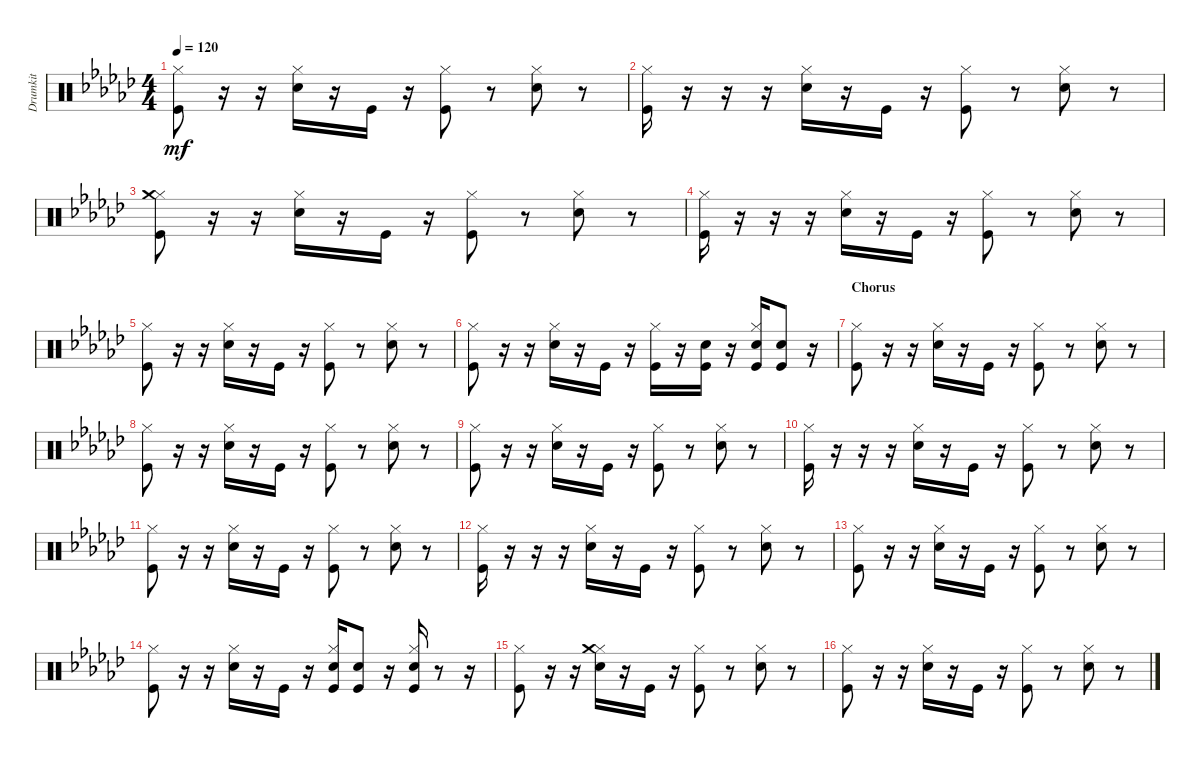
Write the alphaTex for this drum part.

\track ("Drumkit" "Drumkit") {instrument percussion}
\staff {score}
\articulation defaults
\ts (4 4)
\tempo 120
\clef neutral
\ks ebminor
("Kick (hit)" "Hi-Hat (closed)").8{dy mf} r.16 r.16 ("Snare (hit) 2" "Hi-Hat (closed)").16 r.16 "Kick (hit)".16 r.16 ("Kick (hit)" "Hi-Hat (closed)").8 r.8 ("Snare (hit) 2" "Hi-Hat (closed)").8 r.8 |
("Kick (hit)" "Hi-Hat (closed)").16 r.16 r.16 r.16 ("Snare (hit) 2" "Hi-Hat (closed)").16 r.16 "Kick (hit)".16 r.16 ("Kick (hit)" "Hi-Hat (closed)").8 r.8 ("Snare (hit) 2" "Hi-Hat (closed)").8 r.8 |
("Kick (hit)" "Hi-Hat (closed)" "Crash medium (hit)").8 r.16 r.16 ("Snare (hit) 2" "Hi-Hat (closed)").16 r.16 "Kick (hit)".16 r.16 ("Kick (hit)" "Hi-Hat (closed)").8 r.8 ("Snare (hit) 2" "Hi-Hat (closed)").8 r.8 |
("Kick (hit)" "Hi-Hat (closed)").16 r.16 r.16 r.16 ("Snare (hit) 2" "Hi-Hat (closed)").16 r.16 "Kick (hit)".16 r.16 ("Kick (hit)" "Hi-Hat (closed)").8 r.8 ("Snare (hit) 2" "Hi-Hat (closed)").8 r.8 |
("Kick (hit)" "Hi-Hat (closed)").8 r.16 r.16 ("Snare (hit) 2" "Hi-Hat (closed)").16 r.16 "Kick (hit)".16 r.16 ("Kick (hit)" "Hi-Hat (closed)").8 r.8 ("Snare (hit) 2" "Hi-Hat (closed)").8 r.8 |
("Kick (hit)" "Hi-Hat (closed)").8 r.16 r.16 ("Snare (hit) 2" "Hi-Hat (closed)").16 r.16 "Kick (hit)".16 r.16 ("Kick (hit)" "Hi-Hat (closed)").16 r.16 ("Snare (hit) 2" "Kick (hit)").16 r.16 ("Snare (hit) 2" "Hi-Hat (closed)" "Kick (hit)").16 ("Snare (hit) 2" "Kick (hit)").8 r.16 |
\section ("" "Chorus")
("Kick (hit)" "Hi-Hat (closed)").8 r.16 r.16 ("Snare (hit) 2" "Hi-Hat (closed)").16 r.16 "Kick (hit)".16 r.16 ("Kick (hit)" "Hi-Hat (closed)").8 r.8 ("Snare (hit) 2" "Hi-Hat (closed)").8 r.8 |
("Kick (hit)" "Hi-Hat (closed)").8 r.16 r.16 ("Snare (hit) 2" "Hi-Hat (closed)").16 r.16 "Kick (hit)".16 r.16 ("Kick (hit)" "Hi-Hat (closed)").8 r.8 ("Snare (hit) 2" "Hi-Hat (closed)").8 r.8 |
("Kick (hit)" "Hi-Hat (closed)").8 r.16 r.16 ("Snare (hit) 2" "Hi-Hat (closed)").16 r.16 "Kick (hit)".16 r.16 ("Kick (hit)" "Hi-Hat (closed)").8 r.8 ("Snare (hit) 2" "Hi-Hat (closed)").8 r.8 |
("Kick (hit)" "Hi-Hat (closed)").16 r.16 r.16 r.16 ("Snare (hit) 2" "Hi-Hat (closed)").16 r.16 "Kick (hit)".16 r.16 ("Kick (hit)" "Hi-Hat (closed)").8 r.8 ("Snare (hit) 2" "Hi-Hat (closed)").8 r.8 |
("Kick (hit)" "Hi-Hat (closed)").8 r.16 r.16 ("Snare (hit) 2" "Hi-Hat (closed)").16 r.16 "Kick (hit)".16 r.16 ("Kick (hit)" "Hi-Hat (closed)").8 r.8 ("Snare (hit) 2" "Hi-Hat (closed)").8 r.8 |
("Kick (hit)" "Hi-Hat (closed)").16 r.16 r.16 r.16 ("Snare (hit) 2" "Hi-Hat (closed)").16 r.16 "Kick (hit)".16 r.16 ("Kick (hit)" "Hi-Hat (closed)").8 r.8 ("Snare (hit) 2" "Hi-Hat (closed)").8 r.8 |
("Kick (hit)" "Hi-Hat (closed)").8 r.16 r.16 ("Snare (hit) 2" "Hi-Hat (closed)").16 r.16 "Kick (hit)".16 r.16 ("Kick (hit)" "Hi-Hat (closed)").8 r.8 ("Snare (hit) 2" "Hi-Hat (closed)").8 r.8 |
("Kick (hit)" "Hi-Hat (closed)").8 r.16 r.16 ("Snare (hit) 2" "Hi-Hat (closed)").16 r.16 "Kick (hit)".16 r.16 ("Kick (hit)" "Hi-Hat (closed)" "Snare (hit) 2").16 ("Kick (hit)" "Snare (hit) 2").8 r.16 ("Snare (hit) 2" "Hi-Hat (closed)" "Kick (hit)").16 r.8 r.16 |
("Kick (hit)" "Hi-Hat (closed)").8 r.16 r.16 ("Snare (hit) 2" "Hi-Hat (closed)" "Crash medium (hit)").16 r.16 "Kick (hit)".16 r.16 ("Kick (hit)" "Hi-Hat (closed)").8 r.8 ("Snare (hit) 2" "Hi-Hat (closed)").8 r.8 |
("Kick (hit)" "Hi-Hat (closed)").8 r.16 r.16 ("Snare (hit) 2" "Hi-Hat (closed)").16 r.16 "Kick (hit)".16 r.16 ("Kick (hit)" "Hi-Hat (closed)").8 r.8 ("Snare (hit) 2" "Hi-Hat (closed)").8 r.8
